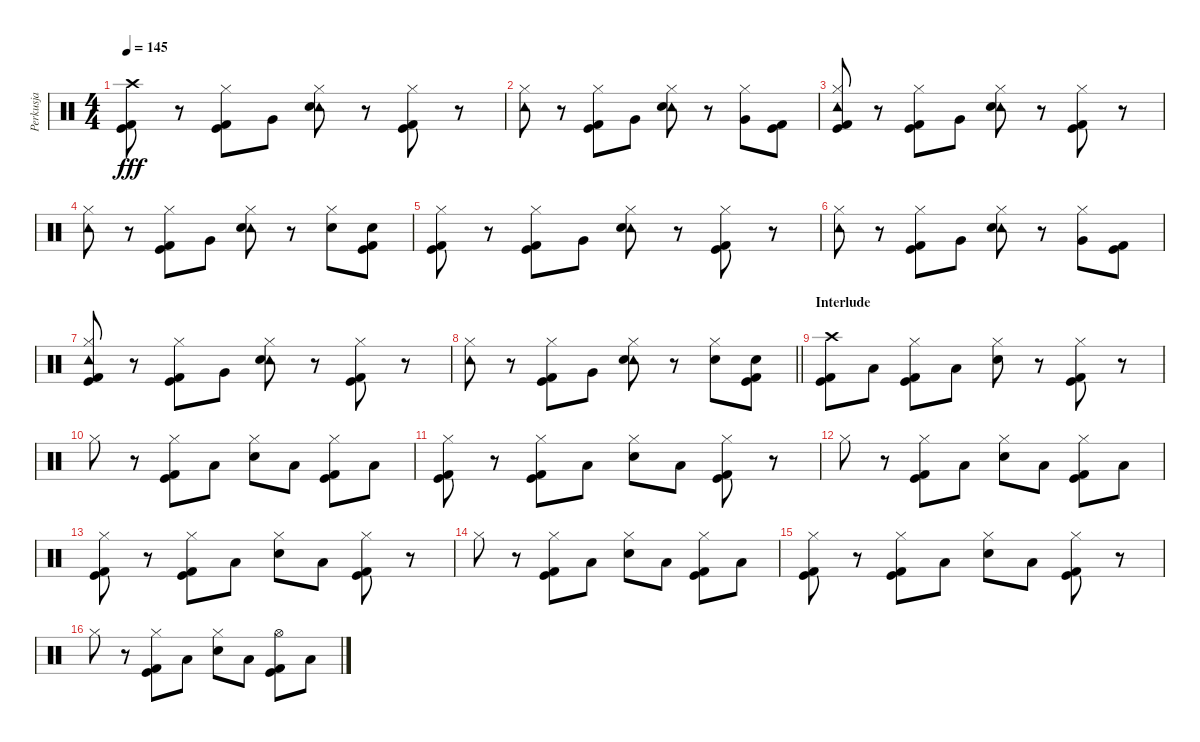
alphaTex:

\track ("Perkusja" "Perkusja") {instrument percussion}
\staff {score}
\articulation defaults
\ts (4 4)
\tempo 145
\clef neutral
\ks c
("Crash high (hit)" "Kick (hit)" "Kick (hit) 2").8{dy fff} r.8 ("Hi-Hat (closed)" "Kick (hit)" "Kick (hit) 2").8 "Very Low Tom (hit)".8 ("Hi-Hat (closed)" "Tambourine (hit)" "Electric Snare (hit)").8 r.8 ("Hi-Hat (closed)" "Kick (hit)" "Kick (hit) 2").8 r.8 |
("Hi-Hat (closed)" "Tambourine (hit)").8 r.8 ("Hi-Hat (closed)" "Kick (hit)" "Kick (hit) 2").8 "Very Low Tom (hit)".8 ("Hi-Hat (closed)" "Tambourine (hit)" "Electric Snare (hit)").8 r.8 ("Hi-Hat (closed)" "Very Low Tom (hit)").8 ("Kick (hit)" "Kick (hit) 2").8 |
("Hi-Hat (closed)" "Tambourine (hit)" "Kick (hit)" "Kick (hit) 2").8 r.8 ("Hi-Hat (closed)" "Kick (hit)" "Kick (hit) 2").8 "Very Low Tom (hit)".8 ("Hi-Hat (closed)" "Tambourine (hit)" "Electric Snare (hit)").8 r.8 ("Hi-Hat (closed)" "Kick (hit)" "Kick (hit) 2").8 r.8 |
("Hi-Hat (closed)" "Tambourine (hit)").8 r.8 ("Hi-Hat (closed)" "Kick (hit)" "Kick (hit) 2").8 "Very Low Tom (hit)".8 ("Hi-Hat (closed)" "Tambourine (hit)" "Electric Snare (hit)").8 r.8 ("Hi-Hat (closed)" "Electric Snare (hit)").8 ("Electric Snare (hit)" "Kick (hit)" "Kick (hit) 2").8 |
("Hi-Hat (closed)" "Kick (hit)" "Kick (hit) 2").8 r.8 ("Hi-Hat (closed)" "Kick (hit)" "Kick (hit) 2").8 "Very Low Tom (hit)".8 ("Hi-Hat (closed)" "Tambourine (hit)" "Electric Snare (hit)").8 r.8 ("Hi-Hat (closed)" "Kick (hit)" "Kick (hit) 2").8 r.8 |
("Hi-Hat (closed)" "Tambourine (hit)").8 r.8 ("Hi-Hat (closed)" "Kick (hit)" "Kick (hit) 2").8 "Very Low Tom (hit)".8 ("Hi-Hat (closed)" "Tambourine (hit)" "Electric Snare (hit)").8 r.8 ("Hi-Hat (closed)" "Very Low Tom (hit)").8 ("Kick (hit)" "Kick (hit) 2").8 |
("Hi-Hat (closed)" "Tambourine (hit)" "Kick (hit)" "Kick (hit) 2").8 r.8 ("Hi-Hat (closed)" "Kick (hit)" "Kick (hit) 2").8 "Very Low Tom (hit)".8 ("Hi-Hat (closed)" "Tambourine (hit)" "Electric Snare (hit)").8 r.8 ("Hi-Hat (closed)" "Kick (hit)" "Kick (hit) 2").8 r.8 |
\barLineRight lightlight
("Hi-Hat (closed)" "Tambourine (hit)").8 r.8 ("Hi-Hat (closed)" "Kick (hit)" "Kick (hit) 2").8 "Very Low Tom (hit)".8 ("Hi-Hat (closed)" "Tambourine (hit)" "Electric Snare (hit)").8 r.8 ("Hi-Hat (closed)" "Electric Snare (hit)").8 ("Electric Snare (hit)" "Kick (hit)" "Kick (hit) 2").8 |
\section ("" "Interlude")
("Crash high (hit)" "Kick (hit)" "Kick (hit) 2").8 "Low Floor Tom (hit)".8 ("Hi-Hat (closed)" "Kick (hit)" "Kick (hit) 2").8 "Low Floor Tom (hit)".8 ("Hi-Hat (closed)" "Electric Snare (hit)").8 r.8 ("Hi-Hat (closed)" "Kick (hit)" "Kick (hit) 2").8 r.8 |
"Hi-Hat (closed)".8 r.8 ("Hi-Hat (closed)" "Kick (hit)" "Kick (hit) 2").8 "Low Floor Tom (hit)".8 ("Hi-Hat (closed)" "Electric Snare (hit)").8 "Low Floor Tom (hit)".8 ("Hi-Hat (closed)" "Kick (hit)" "Kick (hit) 2").8 "Low Floor Tom (hit)".8 |
("Hi-Hat (closed)" "Kick (hit)" "Kick (hit) 2").8 r.8 ("Hi-Hat (closed)" "Kick (hit)" "Kick (hit) 2").8 "Low Floor Tom (hit)".8 ("Hi-Hat (closed)" "Electric Snare (hit)").8 "Low Floor Tom (hit)".8 ("Hi-Hat (closed)" "Kick (hit)" "Kick (hit) 2").8 r.8 |
"Hi-Hat (closed)".8 r.8 ("Hi-Hat (closed)" "Kick (hit)" "Kick (hit) 2").8 "Low Floor Tom (hit)".8 ("Hi-Hat (closed)" "Electric Snare (hit)").8 "Low Floor Tom (hit)".8 ("Hi-Hat (closed)" "Kick (hit)" "Kick (hit) 2").8 "Low Floor Tom (hit)".8 |
("Hi-Hat (closed)" "Kick (hit)" "Kick (hit) 2").8 r.8 ("Hi-Hat (closed)" "Kick (hit)" "Kick (hit) 2").8 "Low Floor Tom (hit)".8 ("Hi-Hat (closed)" "Electric Snare (hit)").8 "Low Floor Tom (hit)".8 ("Hi-Hat (closed)" "Kick (hit)" "Kick (hit) 2").8 r.8 |
"Hi-Hat (closed)".8 r.8 ("Hi-Hat (closed)" "Kick (hit)" "Kick (hit) 2").8 "Low Floor Tom (hit)".8 ("Hi-Hat (closed)" "Electric Snare (hit)").8 "Low Floor Tom (hit)".8 ("Hi-Hat (closed)" "Kick (hit)" "Kick (hit) 2").8 "Low Floor Tom (hit)".8 |
("Hi-Hat (closed)" "Kick (hit)" "Kick (hit) 2").8 r.8 ("Hi-Hat (closed)" "Kick (hit)" "Kick (hit) 2").8 "Low Floor Tom (hit)".8 ("Hi-Hat (closed)" "Electric Snare (hit)").8 "Low Floor Tom (hit)".8 ("Hi-Hat (closed)" "Kick (hit)" "Kick (hit) 2").8 r.8 |
"Hi-Hat (closed)".8 r.8 ("Hi-Hat (closed)" "Kick (hit)" "Kick (hit) 2").8 "Low Floor Tom (hit)".8 ("Hi-Hat (closed)" "Electric Snare (hit)").8 "Low Floor Tom (hit)".8 ("Hi-Hat (open)" "Kick (hit)" "Kick (hit) 2").8 "Low Floor Tom (hit)".8
